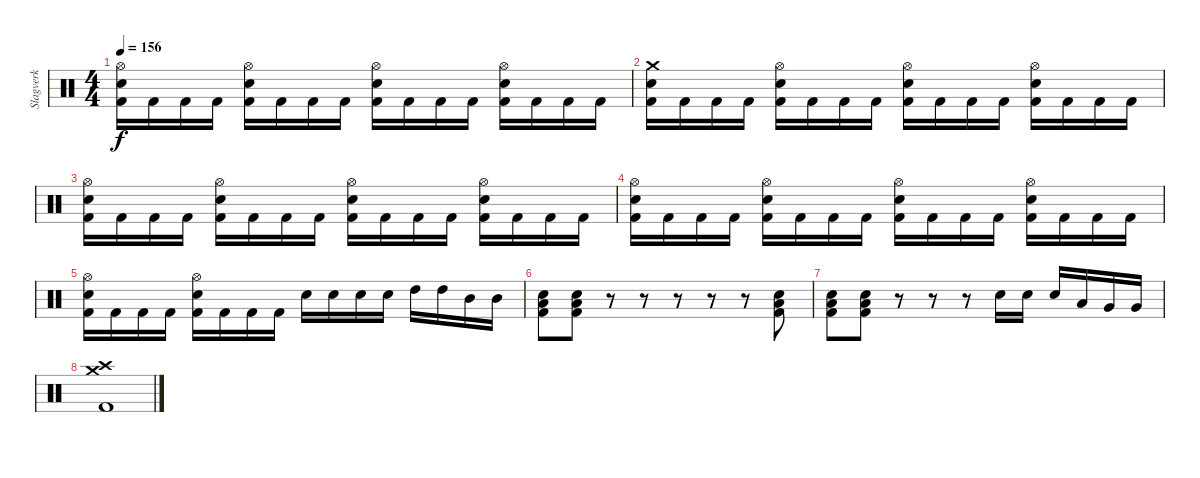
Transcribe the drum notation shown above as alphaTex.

\track ("Slagverk" "Slagverk") {instrument percussion}
\staff {score}
\articulation defaults
\ts (4 4)
\tempo 156
\clef neutral
\ks c
("Hi-Hat (open)" "Snare (hit) 2" "Kick (hit) 2").16{dy f} "Kick (hit) 2".16 "Kick (hit) 2".16 "Kick (hit) 2".16 ("Hi-Hat (open)" "Snare (hit) 2" "Kick (hit) 2").16 "Kick (hit) 2".16 "Kick (hit) 2".16 "Kick (hit) 2".16 ("Hi-Hat (open)" "Snare (hit) 2" "Kick (hit) 2").16 "Kick (hit) 2".16 "Kick (hit) 2".16 "Kick (hit) 2".16 ("Hi-Hat (open)" "Snare (hit) 2" "Kick (hit) 2").16 "Kick (hit) 2".16 "Kick (hit) 2".16 "Kick (hit) 2".16 |
("Crash medium (hit)" "Snare (hit) 2" "Kick (hit) 2").16 "Kick (hit) 2".16 "Kick (hit) 2".16 "Kick (hit) 2".16 ("Hi-Hat (open)" "Snare (hit) 2" "Kick (hit) 2").16 "Kick (hit) 2".16 "Kick (hit) 2".16 "Kick (hit) 2".16 ("Hi-Hat (open)" "Snare (hit) 2" "Kick (hit) 2").16 "Kick (hit) 2".16 "Kick (hit) 2".16 "Kick (hit) 2".16 ("Hi-Hat (open)" "Snare (hit) 2" "Kick (hit) 2").16 "Kick (hit) 2".16 "Kick (hit) 2".16 "Kick (hit) 2".16 |
("Hi-Hat (open)" "Snare (hit) 2" "Kick (hit) 2").16 "Kick (hit) 2".16 "Kick (hit) 2".16 "Kick (hit) 2".16 ("Hi-Hat (open)" "Snare (hit) 2" "Kick (hit) 2").16 "Kick (hit) 2".16 "Kick (hit) 2".16 "Kick (hit) 2".16 ("Hi-Hat (open)" "Snare (hit) 2" "Kick (hit) 2").16 "Kick (hit) 2".16 "Kick (hit) 2".16 "Kick (hit) 2".16 ("Hi-Hat (open)" "Snare (hit) 2" "Kick (hit) 2").16 "Kick (hit) 2".16 "Kick (hit) 2".16 "Kick (hit) 2".16 |
("Hi-Hat (open)" "Snare (hit) 2" "Kick (hit) 2").16 "Kick (hit) 2".16 "Kick (hit) 2".16 "Kick (hit) 2".16 ("Hi-Hat (open)" "Snare (hit) 2" "Kick (hit) 2").16 "Kick (hit) 2".16 "Kick (hit) 2".16 "Kick (hit) 2".16 ("Hi-Hat (open)" "Snare (hit) 2" "Kick (hit) 2").16 "Kick (hit) 2".16 "Kick (hit) 2".16 "Kick (hit) 2".16 ("Hi-Hat (open)" "Snare (hit) 2" "Kick (hit) 2").16 "Kick (hit) 2".16 "Kick (hit) 2".16 "Kick (hit) 2".16 |
("Hi-Hat (open)" "Snare (hit) 2" "Kick (hit) 2").16 "Kick (hit) 2".16 "Kick (hit) 2".16 "Kick (hit) 2".16 ("Hi-Hat (open)" "Snare (hit) 2" "Kick (hit) 2").16 "Kick (hit) 2".16 "Kick (hit) 2".16 "Kick (hit) 2".16 "Snare (hit) 2".16 "Snare (hit) 2".16 "Snare (hit) 2".16 "Snare (hit) 2".16 "High Tom (hit)".16 "High Tom (hit)".16 "Mid Tom (hit)".16 "Mid Tom (hit)".16 |
("Low Floor Tom (hit)" "Snare (hit) 2" "Kick (hit) 2").8 ("Low Floor Tom (hit)" "Snare (hit) 2" "Kick (hit) 2").8 r.8 r.8 r.8 r.8 r.8 ("Low Floor Tom (hit)" "Snare (hit) 2" "Kick (hit) 2").8 |
("Low Floor Tom (hit)" "Snare (hit) 2" "Kick (hit) 2").8 ("Low Floor Tom (hit)" "Snare (hit) 2" "Kick (hit) 2").8 r.8 r.8 r.8 "Snare (hit) 2".16 "Snare (hit) 2".16 "Snare (hit) 2".16 "Low Tom (hit)".16 "Very Low Tom (hit)".16 "Very Low Tom (hit)".16 |
("Crash medium (hit)" "Crash high (hit)" "Kick (hit) 2").1
